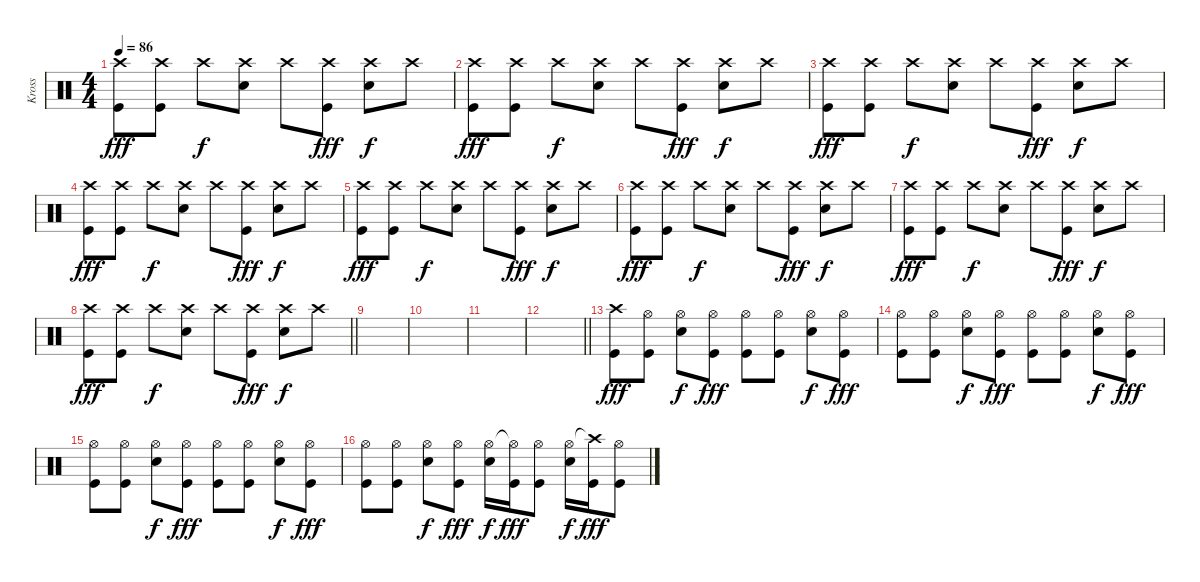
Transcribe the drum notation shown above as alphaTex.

\track ("Kross" "Kross") {instrument percussion}
\staff {score}
\articulation defaults
\ts (4 4)
\tempo 86
\clef neutral
\ks c
("Crash high (hit)" "Kick (hit)").8{dy fff} ("Crash high (hit)" "Kick (hit)").8 "Crash high (hit)".8{dy f} ("Crash high (hit)" "Electric Snare (hit)").8 "Crash high (hit)".8 ("Crash high (hit)" "Kick (hit)").8{dy fff} ("Crash high (hit)" "Electric Snare (hit)").8{dy f} "Crash high (hit)".8 |
("Crash high (hit)" "Kick (hit)").8{dy fff} ("Crash high (hit)" "Kick (hit)").8 "Crash high (hit)".8{dy f} ("Crash high (hit)" "Electric Snare (hit)").8 "Crash high (hit)".8 ("Crash high (hit)" "Kick (hit)").8{dy fff} ("Crash high (hit)" "Electric Snare (hit)").8{dy f} "Crash high (hit)".8 |
("Crash high (hit)" "Kick (hit)").8{dy fff} ("Crash high (hit)" "Kick (hit)").8 "Crash high (hit)".8{dy f} ("Crash high (hit)" "Electric Snare (hit)").8 "Crash high (hit)".8 ("Crash high (hit)" "Kick (hit)").8{dy fff} ("Crash high (hit)" "Electric Snare (hit)").8{dy f} "Crash high (hit)".8 |
("Crash high (hit)" "Kick (hit)").8{dy fff} ("Crash high (hit)" "Kick (hit)").8 "Crash high (hit)".8{dy f} ("Crash high (hit)" "Electric Snare (hit)").8 "Crash high (hit)".8 ("Crash high (hit)" "Kick (hit)").8{dy fff} ("Crash high (hit)" "Electric Snare (hit)").8{dy f} "Crash high (hit)".8 |
("Crash high (hit)" "Kick (hit)").8{dy fff} ("Crash high (hit)" "Kick (hit)").8 "Crash high (hit)".8{dy f} ("Crash high (hit)" "Electric Snare (hit)").8 "Crash high (hit)".8 ("Crash high (hit)" "Kick (hit)").8{dy fff} ("Crash high (hit)" "Electric Snare (hit)").8{dy f} "Crash high (hit)".8 |
("Crash high (hit)" "Kick (hit)").8{dy fff} ("Crash high (hit)" "Kick (hit)").8 "Crash high (hit)".8{dy f} ("Crash high (hit)" "Electric Snare (hit)").8 "Crash high (hit)".8 ("Crash high (hit)" "Kick (hit)").8{dy fff} ("Crash high (hit)" "Electric Snare (hit)").8{dy f} "Crash high (hit)".8 |
("Crash high (hit)" "Kick (hit)").8{dy fff} ("Crash high (hit)" "Kick (hit)").8 "Crash high (hit)".8{dy f} ("Crash high (hit)" "Electric Snare (hit)").8 "Crash high (hit)".8 ("Crash high (hit)" "Kick (hit)").8{dy fff} ("Crash high (hit)" "Electric Snare (hit)").8{dy f} "Crash high (hit)".8 |
\barLineRight lightlight
("Crash high (hit)" "Kick (hit)").8{dy fff} ("Crash high (hit)" "Kick (hit)").8 "Crash high (hit)".8{dy f} ("Crash high (hit)" "Electric Snare (hit)").8 "Crash high (hit)".8 ("Crash high (hit)" "Kick (hit)").8{dy fff} ("Crash high (hit)" "Electric Snare (hit)").8{dy f} "Crash high (hit)".8 |
|
|
|
\barLineRight lightlight
|
("Crash high (hit)" "Kick (hit)").8{dy fff} ("Hi-Hat (open)" "Kick (hit)").8 ("Hi-Hat (open)" "Electric Snare (hit)").8{dy f} ("Hi-Hat (open)" "Kick (hit)").8{dy fff} ("Hi-Hat (open)" "Kick (hit)").8 ("Hi-Hat (open)" "Kick (hit)").8 ("Hi-Hat (open)" "Electric Snare (hit)").8{dy f} ("Hi-Hat (open)" "Kick (hit)").8{dy fff} |
("Hi-Hat (open)" "Kick (hit)").8 ("Hi-Hat (open)" "Kick (hit)").8 ("Hi-Hat (open)" "Electric Snare (hit)").8{dy f} ("Hi-Hat (open)" "Kick (hit)").8{dy fff} ("Hi-Hat (open)" "Kick (hit)").8 ("Hi-Hat (open)" "Kick (hit)").8 ("Hi-Hat (open)" "Electric Snare (hit)").8{dy f} ("Hi-Hat (open)" "Kick (hit)").8{dy fff} |
("Hi-Hat (open)" "Kick (hit)").8 ("Hi-Hat (open)" "Kick (hit)").8 ("Hi-Hat (open)" "Electric Snare (hit)").8{dy f} ("Hi-Hat (open)" "Kick (hit)").8{dy fff} ("Hi-Hat (open)" "Kick (hit)").8 ("Hi-Hat (open)" "Kick (hit)").8 ("Hi-Hat (open)" "Electric Snare (hit)").8{dy f} ("Hi-Hat (open)" "Kick (hit)").8{dy fff} |
("Hi-Hat (open)" "Kick (hit)").8 ("Hi-Hat (open)" "Kick (hit)").8 ("Hi-Hat (open)" "Electric Snare (hit)").8{dy f} ("Hi-Hat (open)" "Kick (hit)").8{dy fff} ("Hi-Hat (open)" "Electric Snare (hit)").16{dy f} ("Hi-Hat (open)"{t} "Kick (hit)").16{dy fff} ("Hi-Hat (open)" "Kick (hit)").8 ("Hi-Hat (open)" "Electric Snare (hit)").16{dy f} ("Crash high (hit)"{t} "Kick (hit)").16{dy fff} ("Hi-Hat (open)" "Kick (hit)").8
